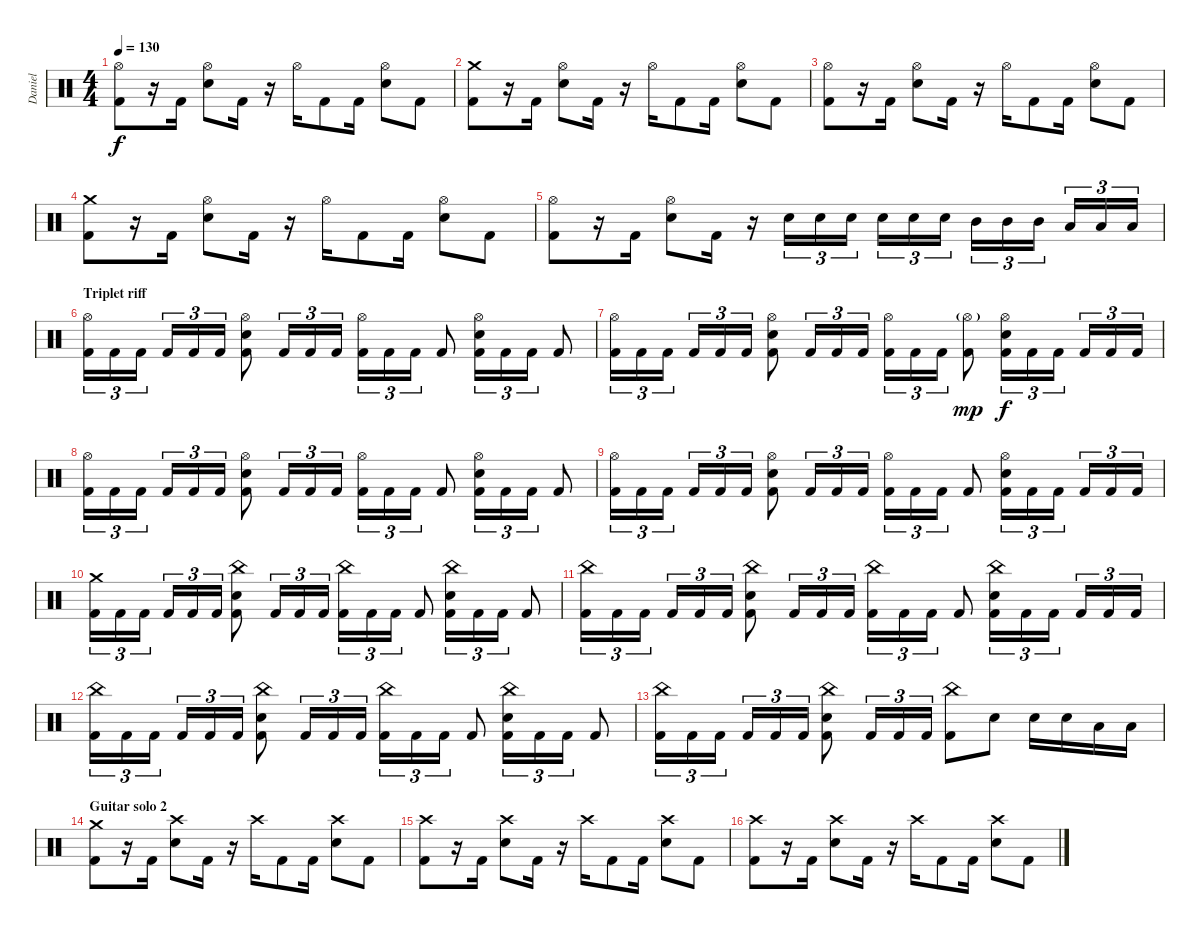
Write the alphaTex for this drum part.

\track ("Daniel" "Daniel") {instrument percussion}
\staff {score}
\articulation defaults
\ts (4 4)
\tempo 130
\clef neutral
\ks c
("Hi-Hat (open)" "Kick (hit) 2").8{dy f} r.16 "Kick (hit) 2".16 ("Hi-Hat (open)" "Electric Snare (hit)").8 "Kick (hit) 2".16 r.16 "Hi-Hat (open)".16 "Kick (hit) 2".8 "Kick (hit) 2".16 ("Hi-Hat (open)" "Electric Snare (hit)").8 "Kick (hit) 2".8 |
("Crash medium (hit)" "Kick (hit) 2").8 r.16 "Kick (hit) 2".16 ("Hi-Hat (open)" "Electric Snare (hit)").8 "Kick (hit) 2".16 r.16 "Hi-Hat (open)".16 "Kick (hit) 2".8 "Kick (hit) 2".16 ("Hi-Hat (open)" "Electric Snare (hit)").8 "Kick (hit) 2".8 |
("Hi-Hat (open)" "Kick (hit) 2").8 r.16 "Kick (hit) 2".16 ("Hi-Hat (open)" "Electric Snare (hit)").8 "Kick (hit) 2".16 r.16 "Hi-Hat (open)".16 "Kick (hit) 2".8 "Kick (hit) 2".16 ("Hi-Hat (open)" "Electric Snare (hit)").8 "Kick (hit) 2".8 |
("Crash medium (hit)" "Kick (hit) 2").8 r.16 "Kick (hit) 2".16 ("Hi-Hat (open)" "Electric Snare (hit)").8 "Kick (hit) 2".16 r.16 "Hi-Hat (open)".16 "Kick (hit) 2".8 "Kick (hit) 2".16 ("Hi-Hat (open)" "Electric Snare (hit)").8 "Kick (hit) 2".8 |
("Hi-Hat (open)" "Kick (hit) 2").8 r.16 "Kick (hit) 2".16 ("Hi-Hat (open)" "Electric Snare (hit)").8 "Kick (hit) 2".16 r.16 "Electric Snare (hit)".16{tu (3 2)} "Electric Snare (hit)".16{tu (3 2)} "Electric Snare (hit)".16{tu (3 2)} "Electric Snare (hit)".16{tu (3 2)} "Electric Snare (hit)".16{tu (3 2)} "Electric Snare (hit)".16{tu (3 2)} "Mid Tom (hit)".16{tu (3 2)} "Mid Tom (hit)".16{tu (3 2)} "Mid Tom (hit)".16{tu (3 2)} "Low Tom (hit)".16{tu (3 2)} "Low Tom (hit)".16{tu (3 2)} "Low Tom (hit)".16{tu (3 2)} |
\section ("" "Triplet riff")
("Hi-Hat (open)" "Kick (hit) 2").16{tu (3 2)} "Kick (hit) 2".16{tu (3 2)} "Kick (hit) 2".16{tu (3 2)} "Kick (hit) 2".16{tu (3 2)} "Kick (hit) 2".16{tu (3 2)} "Kick (hit) 2".16{tu (3 2)} ("Hi-Hat (open)" "Electric Snare (hit)" "Kick (hit) 2").8 "Kick (hit) 2".16{tu (3 2)} "Kick (hit) 2".16{tu (3 2)} "Kick (hit) 2".16{tu (3 2)} ("Hi-Hat (open)" "Kick (hit) 2").16{tu (3 2)} "Kick (hit) 2".16{tu (3 2)} "Kick (hit) 2".16{tu (3 2)} "Kick (hit) 2".8 ("Hi-Hat (open)" "Electric Snare (hit)" "Kick (hit) 2").16{tu (3 2)} "Kick (hit) 2".16{tu (3 2)} "Kick (hit) 2".16{tu (3 2)} "Kick (hit) 2".8 |
("Hi-Hat (open)" "Kick (hit) 2").16{tu (3 2)} "Kick (hit) 2".16{tu (3 2)} "Kick (hit) 2".16{tu (3 2)} "Kick (hit) 2".16{tu (3 2)} "Kick (hit) 2".16{tu (3 2)} "Kick (hit) 2".16{tu (3 2)} ("Hi-Hat (open)" "Electric Snare (hit)" "Kick (hit) 2").8 "Kick (hit) 2".16{tu (3 2)} "Kick (hit) 2".16{tu (3 2)} "Kick (hit) 2".16{tu (3 2)} ("Hi-Hat (open)" "Kick (hit) 2").16{tu (3 2)} "Kick (hit) 2".16{tu (3 2)} "Kick (hit) 2".16{tu (3 2)} ("Hi-Hat (open)"{g} "Kick (hit) 2").8{dy mp} ("Hi-Hat (open)" "Electric Snare (hit)" "Kick (hit) 2").16{tu (3 2) dy f} "Kick (hit) 2".16{tu (3 2)} "Kick (hit) 2".16{tu (3 2)} "Kick (hit) 2".16{tu (3 2)} "Kick (hit) 2".16{tu (3 2)} "Kick (hit) 2".16{tu (3 2)} |
("Hi-Hat (open)" "Kick (hit) 2").16{tu (3 2)} "Kick (hit) 2".16{tu (3 2)} "Kick (hit) 2".16{tu (3 2)} "Kick (hit) 2".16{tu (3 2)} "Kick (hit) 2".16{tu (3 2)} "Kick (hit) 2".16{tu (3 2)} ("Hi-Hat (open)" "Electric Snare (hit)" "Kick (hit) 2").8 "Kick (hit) 2".16{tu (3 2)} "Kick (hit) 2".16{tu (3 2)} "Kick (hit) 2".16{tu (3 2)} ("Hi-Hat (open)" "Kick (hit) 2").16{tu (3 2)} "Kick (hit) 2".16{tu (3 2)} "Kick (hit) 2".16{tu (3 2)} "Kick (hit) 2".8 ("Hi-Hat (open)" "Electric Snare (hit)" "Kick (hit) 2").16{tu (3 2)} "Kick (hit) 2".16{tu (3 2)} "Kick (hit) 2".16{tu (3 2)} "Kick (hit) 2".8 |
("Hi-Hat (open)" "Kick (hit) 2").16{tu (3 2)} "Kick (hit) 2".16{tu (3 2)} "Kick (hit) 2".16{tu (3 2)} "Kick (hit) 2".16{tu (3 2)} "Kick (hit) 2".16{tu (3 2)} "Kick (hit) 2".16{tu (3 2)} ("Hi-Hat (open)" "Electric Snare (hit)" "Kick (hit) 2").8 "Kick (hit) 2".16{tu (3 2)} "Kick (hit) 2".16{tu (3 2)} "Kick (hit) 2".16{tu (3 2)} ("Hi-Hat (open)" "Kick (hit) 2").16{tu (3 2)} "Kick (hit) 2".16{tu (3 2)} "Kick (hit) 2".16{tu (3 2)} "Kick (hit) 2".8 ("Hi-Hat (open)" "Electric Snare (hit)" "Kick (hit) 2").16{tu (3 2)} "Kick (hit) 2".16{tu (3 2)} "Kick (hit) 2".16{tu (3 2)} "Kick (hit) 2".16{tu (3 2)} "Kick (hit) 2".16{tu (3 2)} "Kick (hit) 2".16{tu (3 2)} |
("Crash medium (hit)" "Kick (hit) 2").16{tu (3 2)} "Kick (hit) 2".16{tu (3 2)} "Kick (hit) 2".16{tu (3 2)} "Kick (hit) 2".16{tu (3 2)} "Kick (hit) 2".16{tu (3 2)} "Kick (hit) 2".16{tu (3 2)} ("China (hit)" "Electric Snare (hit)" "Kick (hit) 2").8 "Kick (hit) 2".16{tu (3 2)} "Kick (hit) 2".16{tu (3 2)} "Kick (hit) 2".16{tu (3 2)} ("China (hit)" "Kick (hit) 2").16{tu (3 2)} "Kick (hit) 2".16{tu (3 2)} "Kick (hit) 2".16{tu (3 2)} "Kick (hit) 2".8 ("China (hit)" "Electric Snare (hit)" "Kick (hit) 2").16{tu (3 2)} "Kick (hit) 2".16{tu (3 2)} "Kick (hit) 2".16{tu (3 2)} "Kick (hit) 2".8 |
("China (hit)" "Kick (hit) 2").16{tu (3 2)} "Kick (hit) 2".16{tu (3 2)} "Kick (hit) 2".16{tu (3 2)} "Kick (hit) 2".16{tu (3 2)} "Kick (hit) 2".16{tu (3 2)} "Kick (hit) 2".16{tu (3 2)} ("China (hit)" "Electric Snare (hit)" "Kick (hit) 2").8 "Kick (hit) 2".16{tu (3 2)} "Kick (hit) 2".16{tu (3 2)} "Kick (hit) 2".16{tu (3 2)} ("China (hit)" "Kick (hit) 2").16{tu (3 2)} "Kick (hit) 2".16{tu (3 2)} "Kick (hit) 2".16{tu (3 2)} "Kick (hit) 2".8 ("China (hit)" "Electric Snare (hit)" "Kick (hit) 2").16{tu (3 2)} "Kick (hit) 2".16{tu (3 2)} "Kick (hit) 2".16{tu (3 2)} "Kick (hit) 2".16{tu (3 2)} "Kick (hit) 2".16{tu (3 2)} "Kick (hit) 2".16{tu (3 2)} |
("China (hit)" "Kick (hit) 2").16{tu (3 2)} "Kick (hit) 2".16{tu (3 2)} "Kick (hit) 2".16{tu (3 2)} "Kick (hit) 2".16{tu (3 2)} "Kick (hit) 2".16{tu (3 2)} "Kick (hit) 2".16{tu (3 2)} ("China (hit)" "Electric Snare (hit)" "Kick (hit) 2").8 "Kick (hit) 2".16{tu (3 2)} "Kick (hit) 2".16{tu (3 2)} "Kick (hit) 2".16{tu (3 2)} ("China (hit)" "Kick (hit) 2").16{tu (3 2)} "Kick (hit) 2".16{tu (3 2)} "Kick (hit) 2".16{tu (3 2)} "Kick (hit) 2".8 ("China (hit)" "Electric Snare (hit)" "Kick (hit) 2").16{tu (3 2)} "Kick (hit) 2".16{tu (3 2)} "Kick (hit) 2".16{tu (3 2)} "Kick (hit) 2".8 |
("China (hit)" "Kick (hit) 2").16{tu (3 2)} "Kick (hit) 2".16{tu (3 2)} "Kick (hit) 2".16{tu (3 2)} "Kick (hit) 2".16{tu (3 2)} "Kick (hit) 2".16{tu (3 2)} "Kick (hit) 2".16{tu (3 2)} ("China (hit)" "Electric Snare (hit)" "Kick (hit) 2").8 "Kick (hit) 2".16{tu (3 2)} "Kick (hit) 2".16{tu (3 2)} "Kick (hit) 2".16{tu (3 2)} ("China (hit)" "Kick (hit) 2").8 "Electric Snare (hit)".8 "Electric Snare (hit)".16 "Electric Snare (hit)".16 "Low Tom (hit)".16 "Low Tom (hit)".16 |
\section ("" "Guitar solo 2")
("Crash medium (hit)" "Kick (hit) 2").8 r.16 "Kick (hit) 2".16 ("Crash high (hit)" "Electric Snare (hit)").8 "Kick (hit) 2".16 r.16 "Crash high (hit)".16 "Kick (hit) 2".8 "Kick (hit) 2".16 ("Crash high (hit)" "Electric Snare (hit)").8 "Kick (hit) 2".8 |
("Crash high (hit)" "Kick (hit) 2").8 r.16 "Kick (hit) 2".16 ("Crash high (hit)" "Electric Snare (hit)").8 "Kick (hit) 2".16 r.16 "Crash high (hit)".16 "Kick (hit) 2".8 "Kick (hit) 2".16 ("Crash high (hit)" "Electric Snare (hit)").8 "Kick (hit) 2".8 |
("Crash high (hit)" "Kick (hit) 2").8 r.16 "Kick (hit) 2".16 ("Crash high (hit)" "Electric Snare (hit)").8 "Kick (hit) 2".16 r.16 "Crash high (hit)".16 "Kick (hit) 2".8 "Kick (hit) 2".16 ("Crash high (hit)" "Electric Snare (hit)").8 "Kick (hit) 2".8
